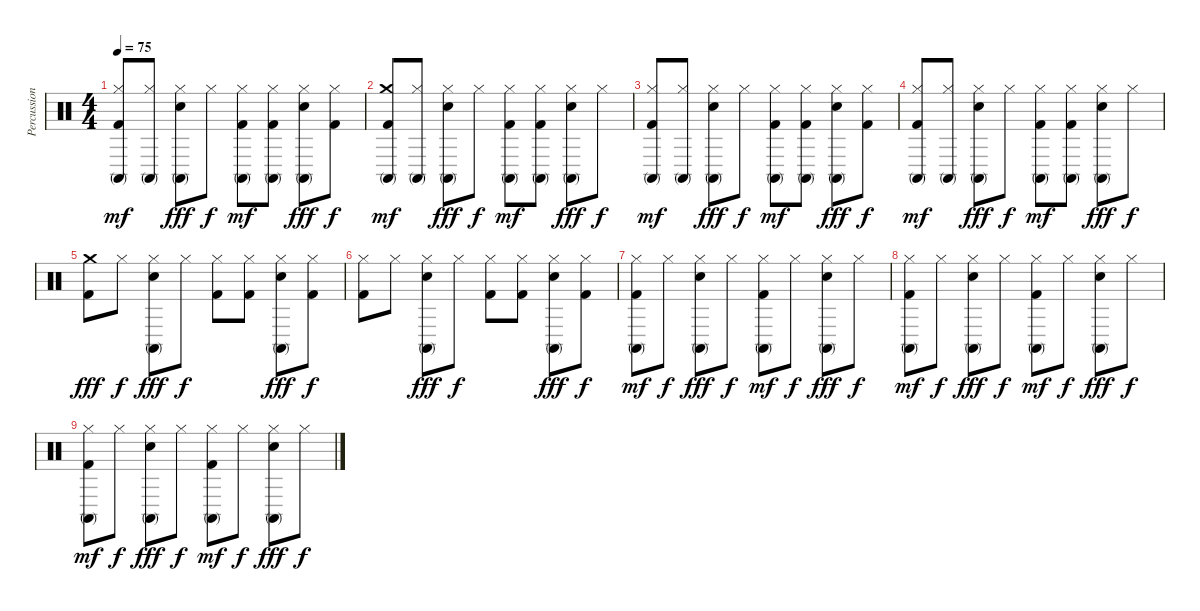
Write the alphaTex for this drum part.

\track ("Percussion" "Percussion") {instrument percussion}
\staff {score}
\articulation defaults
\ts (4 4)
\tempo 75
\clef neutral
\ks c
("Hi-Hat (closed)" "Conga high (mute)" "Kick (hit) 2").8{dy mf} ("Hi-Hat (closed)" "Conga high (mute)").8 ("Hi-Hat (closed)" "Electric Snare (hit)" "Conga high (mute)").8{dy fff} "Hi-Hat (closed)".8{dy f} ("Hi-Hat (closed)" "Conga high (mute)" "Kick (hit) 2").8{dy mf} ("Hi-Hat (closed)" "Conga high (mute)" "Kick (hit) 2").8 ("Hi-Hat (closed)" "Electric Snare (hit)" "Conga high (mute)").8{dy fff} ("Hi-Hat (closed)" "Kick (hit) 2").8{dy f} |
("Crash medium (hit)" "Conga high (mute)" "Kick (hit) 2").8{dy mf} ("Hi-Hat (closed)" "Conga high (mute)").8 ("Hi-Hat (closed)" "Electric Snare (hit)" "Conga high (mute)").8{dy fff} "Hi-Hat (closed)".8{dy f} ("Hi-Hat (closed)" "Conga high (mute)" "Kick (hit) 2").8{dy mf} ("Hi-Hat (closed)" "Conga high (mute)" "Kick (hit) 2").8 ("Hi-Hat (closed)" "Electric Snare (hit)" "Conga high (mute)").8{dy fff} "Hi-Hat (closed)".8{dy f} |
("Hi-Hat (closed)" "Conga high (mute)" "Kick (hit) 2").8{dy mf} ("Hi-Hat (closed)" "Conga high (mute)").8 ("Hi-Hat (closed)" "Electric Snare (hit)" "Conga high (mute)").8{dy fff} "Hi-Hat (closed)".8{dy f} ("Hi-Hat (closed)" "Conga high (mute)" "Kick (hit) 2").8{dy mf} ("Hi-Hat (closed)" "Conga high (mute)" "Kick (hit) 2").8 ("Hi-Hat (closed)" "Electric Snare (hit)" "Conga high (mute)").8{dy fff} ("Hi-Hat (closed)" "Kick (hit) 2").8{dy f} |
("Hi-Hat (closed)" "Conga high (mute)" "Kick (hit) 2").8{dy mf} ("Hi-Hat (closed)" "Conga high (mute)").8 ("Hi-Hat (closed)" "Electric Snare (hit)" "Conga high (mute)").8{dy fff} "Hi-Hat (closed)".8{dy f} ("Hi-Hat (closed)" "Conga high (mute)" "Kick (hit) 2").8{dy mf} ("Hi-Hat (closed)" "Conga high (mute)" "Kick (hit) 2").8 ("Hi-Hat (closed)" "Electric Snare (hit)" "Conga high (mute)").8{dy fff} "Hi-Hat (closed)".8{dy f} |
("Crash medium (hit)" "Kick (hit) 2").8{dy fff} "Hi-Hat (closed)".8{dy f} ("Hi-Hat (closed)" "Electric Snare (hit)" "Conga high (mute)").8{dy fff} "Hi-Hat (closed)".8{dy f} ("Hi-Hat (closed)" "Kick (hit) 2").8 ("Hi-Hat (closed)" "Kick (hit) 2").8 ("Hi-Hat (closed)" "Electric Snare (hit)" "Conga high (mute)").8{dy fff} ("Hi-Hat (closed)" "Kick (hit) 2").8{dy f} |
("Hi-Hat (closed)" "Kick (hit) 2").8 "Hi-Hat (closed)".8 ("Hi-Hat (closed)" "Electric Snare (hit)" "Conga high (mute)").8{dy fff} "Hi-Hat (closed)".8{dy f} ("Hi-Hat (closed)" "Kick (hit) 2").8 ("Hi-Hat (closed)" "Kick (hit) 2").8 ("Hi-Hat (closed)" "Electric Snare (hit)" "Conga high (mute)").8{dy fff} ("Hi-Hat (closed)" "Kick (hit) 2").8{dy f} |
("Hi-Hat (closed)" "Conga high (mute)" "Kick (hit) 2").8{dy mf volume 12} "Hi-Hat (closed)".8{dy f} ("Hi-Hat (closed)" "Snare (hit) 2" "Conga high (mute)").8{dy fff} "Hi-Hat (closed)".8{dy f} ("Hi-Hat (closed)" "Conga high (mute)" "Kick (hit) 2").8{dy mf} "Hi-Hat (closed)".8{dy f} ("Hi-Hat (closed)" "Snare (hit) 2" "Conga high (mute)").8{dy fff} "Hi-Hat (closed)".8{dy f} |
("Hi-Hat (closed)" "Conga high (mute)" "Kick (hit) 2").8{dy mf} "Hi-Hat (closed)".8{dy f} ("Hi-Hat (closed)" "Snare (hit) 2" "Conga high (mute)").8{dy fff} "Hi-Hat (closed)".8{dy f} ("Hi-Hat (closed)" "Conga high (mute)" "Kick (hit) 2").8{dy mf} "Hi-Hat (closed)".8{dy f} ("Hi-Hat (closed)" "Snare (hit) 2" "Conga high (mute)").8{dy fff} "Hi-Hat (closed)".8{dy f} |
("Hi-Hat (closed)" "Conga high (mute)" "Kick (hit) 2").8{dy mf} "Hi-Hat (closed)".8{dy f} ("Hi-Hat (closed)" "Snare (hit) 2" "Conga high (mute)").8{dy fff} "Hi-Hat (closed)".8{dy f} ("Hi-Hat (closed)" "Conga high (mute)" "Kick (hit) 2").8{dy mf} "Hi-Hat (closed)".8{dy f} ("Hi-Hat (closed)" "Snare (hit) 2" "Conga high (mute)").8{dy fff} "Hi-Hat (closed)".8{dy f}
